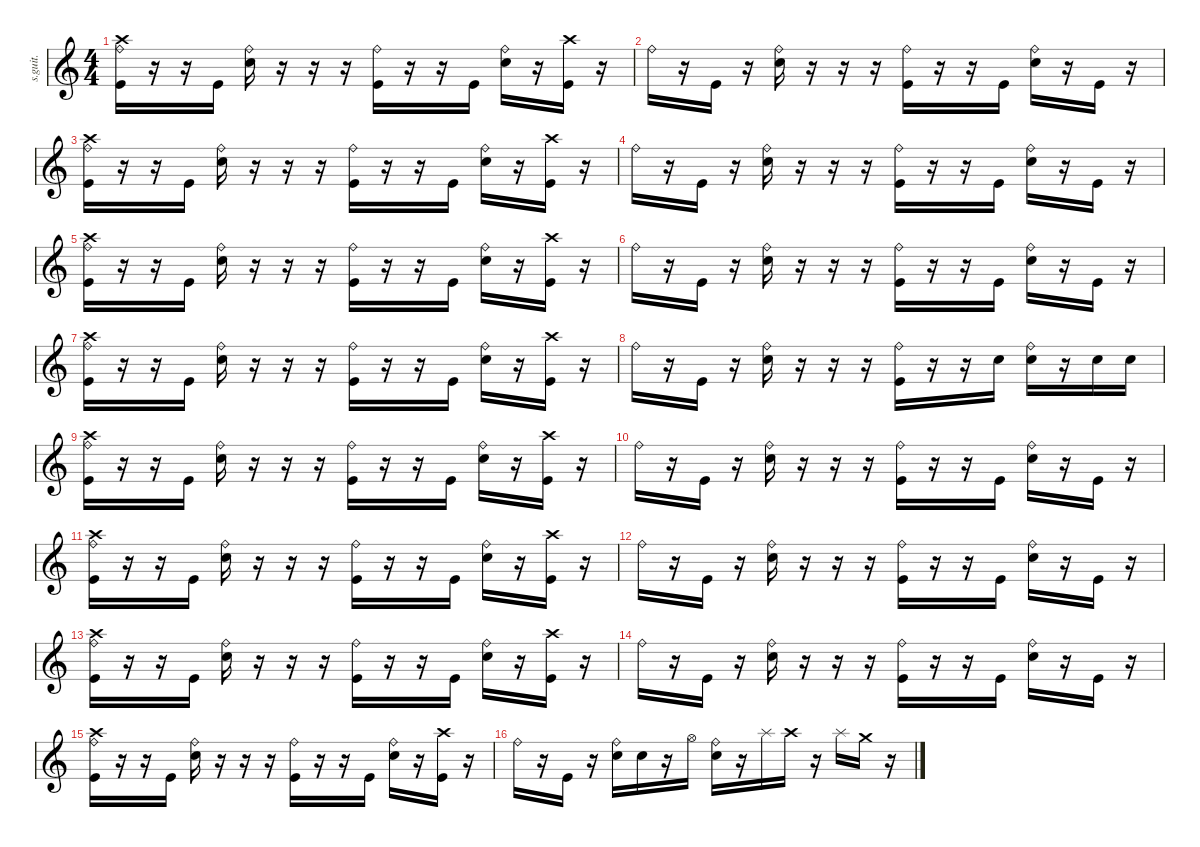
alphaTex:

\defaultSystemsLayout 4
\hideDynamics
\bracketExtendMode nobrackets
\track ("Percussion" "s.guit.") {instrument percussion}
\staff {score}
\articulation defaults
\ts (4 4)
\tempo (128 hide)
\clef g2
\ks c
("Crash high (hit)" "Ride (bell)" "Kick (hit)").16{dy f} r.16 r.16 "Kick (hit)".16 ("Ride (bell)" "Electric Snare (hit)").16 r.16 r.16 r.16 ("Ride (bell)" "Kick (hit)").16 r.16 r.16 "Kick (hit)".16 ("Ride (bell)" "Electric Snare (hit)").16 r.16 ("Crash high (hit)" "Kick (hit)").16 r.16 |
"Ride (bell)".16 r.16 "Kick (hit)".16 r.16 ("Ride (bell)" "Electric Snare (hit)").16 r.16 r.16 r.16 ("Ride (bell)" "Kick (hit)").16 r.16 r.16 "Kick (hit)".16 ("Ride (bell)" "Electric Snare (hit)").16 r.16 "Kick (hit)".16 r.16 |
("Crash high (hit)" "Ride (bell)" "Kick (hit)").16 r.16 r.16 "Kick (hit)".16 ("Ride (bell)" "Electric Snare (hit)").16 r.16 r.16 r.16 ("Ride (bell)" "Kick (hit)").16 r.16 r.16 "Kick (hit)".16 ("Ride (bell)" "Electric Snare (hit)").16 r.16 ("Crash high (hit)" "Kick (hit)").16 r.16 |
"Ride (bell)".16 r.16 "Kick (hit)".16 r.16 ("Ride (bell)" "Electric Snare (hit)").16 r.16 r.16 r.16 ("Ride (bell)" "Kick (hit)").16 r.16 r.16 "Kick (hit)".16 ("Ride (bell)" "Electric Snare (hit)").16 r.16 "Kick (hit)".16 r.16 |
("Crash high (hit)" "Ride (bell)" "Kick (hit)").16 r.16 r.16 "Kick (hit)".16 ("Ride (bell)" "Electric Snare (hit)").16 r.16 r.16 r.16 ("Ride (bell)" "Kick (hit)").16 r.16 r.16 "Kick (hit)".16 ("Ride (bell)" "Electric Snare (hit)").16 r.16 ("Crash high (hit)" "Kick (hit)").16 r.16 |
"Ride (bell)".16 r.16 "Kick (hit)".16 r.16 ("Ride (bell)" "Electric Snare (hit)").16 r.16 r.16 r.16 ("Ride (bell)" "Kick (hit)").16 r.16 r.16 "Kick (hit)".16 ("Ride (bell)" "Electric Snare (hit)").16 r.16 "Kick (hit)".16 r.16 |
("Crash high (hit)" "Ride (bell)" "Kick (hit)").16 r.16 r.16 "Kick (hit)".16 ("Ride (bell)" "Electric Snare (hit)").16 r.16 r.16 r.16 ("Ride (bell)" "Kick (hit)").16 r.16 r.16 "Kick (hit)".16 ("Ride (bell)" "Electric Snare (hit)").16 r.16 ("Crash high (hit)" "Kick (hit)").16 r.16 |
"Ride (bell)".16 r.16 "Kick (hit)".16 r.16 ("Ride (bell)" "Electric Snare (hit)").16 r.16 r.16 r.16 ("Ride (bell)" "Kick (hit)").16 r.16 r.16 "Electric Snare (hit)".16 ("Ride (bell)" "Electric Snare (hit)").16 r.16 "Electric Snare (hit)".16 "Electric Snare (hit)".16 |
("Crash high (hit)" "Ride (bell)" "Kick (hit)").16 r.16 r.16 "Kick (hit)".16 ("Ride (bell)" "Electric Snare (hit)").16 r.16 r.16 r.16 ("Ride (bell)" "Kick (hit)").16 r.16 r.16 "Kick (hit)".16 ("Ride (bell)" "Electric Snare (hit)").16 r.16 ("Crash high (hit)" "Kick (hit)").16 r.16 |
"Ride (bell)".16 r.16 "Kick (hit)".16 r.16 ("Ride (bell)" "Electric Snare (hit)").16 r.16 r.16 r.16 ("Ride (bell)" "Kick (hit)").16 r.16 r.16 "Kick (hit)".16 ("Ride (bell)" "Electric Snare (hit)").16 r.16 "Kick (hit)".16 r.16 |
("Crash high (hit)" "Ride (bell)" "Kick (hit)").16 r.16 r.16 "Kick (hit)".16 ("Ride (bell)" "Electric Snare (hit)").16 r.16 r.16 r.16 ("Ride (bell)" "Kick (hit)").16 r.16 r.16 "Kick (hit)".16 ("Ride (bell)" "Electric Snare (hit)").16 r.16 ("Crash high (hit)" "Kick (hit)").16 r.16 |
"Ride (bell)".16 r.16 "Kick (hit)".16 r.16 ("Ride (bell)" "Electric Snare (hit)").16 r.16 r.16 r.16 ("Ride (bell)" "Kick (hit)").16 r.16 r.16 "Kick (hit)".16 ("Ride (bell)" "Electric Snare (hit)").16 r.16 "Kick (hit)".16 r.16 |
("Crash high (hit)" "Ride (bell)" "Kick (hit)").16 r.16 r.16 "Kick (hit)".16 ("Ride (bell)" "Electric Snare (hit)").16 r.16 r.16 r.16 ("Ride (bell)" "Kick (hit)").16 r.16 r.16 "Kick (hit)".16 ("Ride (bell)" "Electric Snare (hit)").16 r.16 ("Crash high (hit)" "Kick (hit)").16 r.16 |
"Ride (bell)".16 r.16 "Kick (hit)".16 r.16 ("Ride (bell)" "Electric Snare (hit)").16 r.16 r.16 r.16 ("Ride (bell)" "Kick (hit)").16 r.16 r.16 "Kick (hit)".16 ("Ride (bell)" "Electric Snare (hit)").16 r.16 "Kick (hit)".16 r.16 |
("Crash high (hit)" "Ride (bell)" "Kick (hit)").16 r.16 r.16 "Kick (hit)".16 ("Ride (bell)" "Electric Snare (hit)").16 r.16 r.16 r.16 ("Ride (bell)" "Kick (hit)").16 r.16 r.16 "Kick (hit)".16 ("Ride (bell)" "Electric Snare (hit)").16 r.16 ("Crash high (hit)" "Kick (hit)").16 r.16 |
"Ride (bell)".16 r.16 "Kick (hit)".16 r.16 ("Ride (bell)" "Electric Snare (hit)").16 "Electric Snare (hit)".16 r.16 "Hi-Hat (open)".16 ("Ride (bell)" "Electric Snare (hit)").16 r.16 "Splash (hit)".16 "Crash high (hit)".16 r.16 "Splash (hit)".16 "Crash medium (hit)".16 r.16
